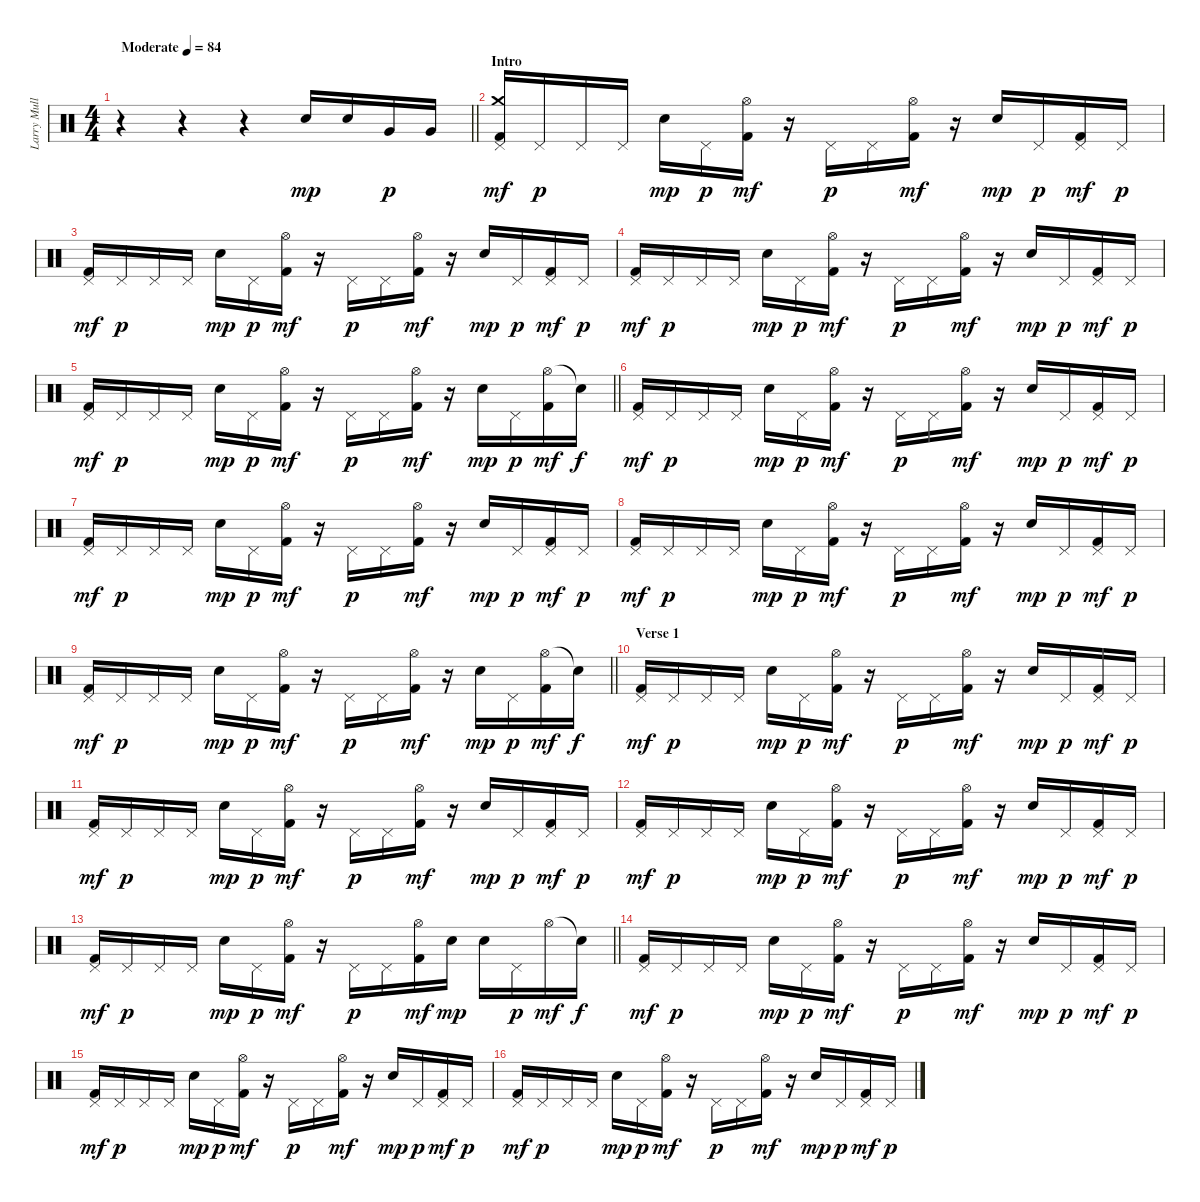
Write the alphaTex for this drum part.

\track ("Larry Mullen Jr." "Larry Mull") {instrument percussion}
\staff {score}
\articulation defaults
\ts (4 4)
\tempo (84 "Moderate")
\clef neutral
\barLineRight lightlight
\ks c
r.4{dy mp} r.4 r.4 "Electric Snare (hit)".16 "Electric Snare (hit)".16 "Very Low Tom (hit)".16{dy p} "Very Low Tom (hit)".16 |
\section ("" "Intro")
("Pedal Hi-Hat (hit)" "Crash medium (hit)" "Kick (hit) 2").16{dy mf} "Pedal Hi-Hat (hit)".16{dy p} "Pedal Hi-Hat (hit)".16 "Pedal Hi-Hat (hit)".16 "Electric Snare (hit)".16{dy mp} "Pedal Hi-Hat (hit)".16{dy p} ("Hi-Hat (open)" "Kick (hit) 2").16{dy mf} r.16 "Pedal Hi-Hat (hit)".16{dy p} "Pedal Hi-Hat (hit)".16 ("Hi-Hat (open)" "Kick (hit) 2").16{dy mf} r.16 "Electric Snare (hit)".16{dy mp} "Pedal Hi-Hat (hit)".16{dy p} ("Pedal Hi-Hat (hit)" "Kick (hit) 2").16{dy mf} "Pedal Hi-Hat (hit)".16{dy p} |
("Pedal Hi-Hat (hit)" "Kick (hit) 2").16{dy mf} "Pedal Hi-Hat (hit)".16{dy p} "Pedal Hi-Hat (hit)".16 "Pedal Hi-Hat (hit)".16 "Electric Snare (hit)".16{dy mp} "Pedal Hi-Hat (hit)".16{dy p} ("Hi-Hat (open)" "Kick (hit) 2").16{dy mf} r.16 "Pedal Hi-Hat (hit)".16{dy p} "Pedal Hi-Hat (hit)".16 ("Hi-Hat (open)" "Kick (hit) 2").16{dy mf} r.16 "Electric Snare (hit)".16{dy mp} "Pedal Hi-Hat (hit)".16{dy p} ("Pedal Hi-Hat (hit)" "Kick (hit) 2").16{dy mf} "Pedal Hi-Hat (hit)".16{dy p} |
("Pedal Hi-Hat (hit)" "Kick (hit) 2").16{dy mf} "Pedal Hi-Hat (hit)".16{dy p} "Pedal Hi-Hat (hit)".16 "Pedal Hi-Hat (hit)".16 "Electric Snare (hit)".16{dy mp} "Pedal Hi-Hat (hit)".16{dy p} ("Hi-Hat (open)" "Kick (hit) 2").16{dy mf} r.16 "Pedal Hi-Hat (hit)".16{dy p} "Pedal Hi-Hat (hit)".16 ("Hi-Hat (open)" "Kick (hit) 2").16{dy mf} r.16 "Electric Snare (hit)".16{dy mp} "Pedal Hi-Hat (hit)".16{dy p} ("Pedal Hi-Hat (hit)" "Kick (hit) 2").16{dy mf} "Pedal Hi-Hat (hit)".16{dy p} |
\barLineRight lightlight
("Pedal Hi-Hat (hit)" "Kick (hit) 2").16{dy mf} "Pedal Hi-Hat (hit)".16{dy p} "Pedal Hi-Hat (hit)".16 "Pedal Hi-Hat (hit)".16 "Electric Snare (hit)".16{dy mp} "Pedal Hi-Hat (hit)".16{dy p} ("Hi-Hat (open)" "Kick (hit) 2").16{dy mf} r.16 "Pedal Hi-Hat (hit)".16{dy p} "Pedal Hi-Hat (hit)".16 ("Hi-Hat (open)" "Kick (hit) 2").16{dy mf} r.16 "Electric Snare (hit)".16{dy mp} "Pedal Hi-Hat (hit)".16{dy p} ("Hi-Hat (open)" "Kick (hit) 2").16{dy mf} "Snare (hit)"{t}.16{dy f} |
("Pedal Hi-Hat (hit)" "Kick (hit) 2").16{dy mf} "Pedal Hi-Hat (hit)".16{dy p} "Pedal Hi-Hat (hit)".16 "Pedal Hi-Hat (hit)".16 "Electric Snare (hit)".16{dy mp} "Pedal Hi-Hat (hit)".16{dy p} ("Hi-Hat (open)" "Kick (hit) 2").16{dy mf} r.16 "Pedal Hi-Hat (hit)".16{dy p} "Pedal Hi-Hat (hit)".16 ("Hi-Hat (open)" "Kick (hit) 2").16{dy mf} r.16 "Electric Snare (hit)".16{dy mp} "Pedal Hi-Hat (hit)".16{dy p} ("Pedal Hi-Hat (hit)" "Kick (hit) 2").16{dy mf} "Pedal Hi-Hat (hit)".16{dy p} |
("Pedal Hi-Hat (hit)" "Kick (hit) 2").16{dy mf} "Pedal Hi-Hat (hit)".16{dy p} "Pedal Hi-Hat (hit)".16 "Pedal Hi-Hat (hit)".16 "Electric Snare (hit)".16{dy mp} "Pedal Hi-Hat (hit)".16{dy p} ("Hi-Hat (open)" "Kick (hit) 2").16{dy mf} r.16 "Pedal Hi-Hat (hit)".16{dy p} "Pedal Hi-Hat (hit)".16 ("Hi-Hat (open)" "Kick (hit) 2").16{dy mf} r.16 "Electric Snare (hit)".16{dy mp} "Pedal Hi-Hat (hit)".16{dy p} ("Pedal Hi-Hat (hit)" "Kick (hit) 2").16{dy mf} "Pedal Hi-Hat (hit)".16{dy p} |
("Pedal Hi-Hat (hit)" "Kick (hit) 2").16{dy mf} "Pedal Hi-Hat (hit)".16{dy p} "Pedal Hi-Hat (hit)".16 "Pedal Hi-Hat (hit)".16 "Electric Snare (hit)".16{dy mp} "Pedal Hi-Hat (hit)".16{dy p} ("Hi-Hat (open)" "Kick (hit) 2").16{dy mf} r.16 "Pedal Hi-Hat (hit)".16{dy p} "Pedal Hi-Hat (hit)".16 ("Hi-Hat (open)" "Kick (hit) 2").16{dy mf} r.16 "Electric Snare (hit)".16{dy mp} "Pedal Hi-Hat (hit)".16{dy p} ("Pedal Hi-Hat (hit)" "Kick (hit) 2").16{dy mf} "Pedal Hi-Hat (hit)".16{dy p} |
\barLineRight lightlight
("Pedal Hi-Hat (hit)" "Kick (hit) 2").16{dy mf} "Pedal Hi-Hat (hit)".16{dy p} "Pedal Hi-Hat (hit)".16 "Pedal Hi-Hat (hit)".16 "Electric Snare (hit)".16{dy mp} "Pedal Hi-Hat (hit)".16{dy p} ("Hi-Hat (open)" "Kick (hit) 2").16{dy mf} r.16 "Pedal Hi-Hat (hit)".16{dy p} "Pedal Hi-Hat (hit)".16 ("Hi-Hat (open)" "Kick (hit) 2").16{dy mf} r.16 "Electric Snare (hit)".16{dy mp} "Pedal Hi-Hat (hit)".16{dy p} ("Hi-Hat (open)" "Kick (hit) 2").16{dy mf} "Snare (hit)"{t}.16{dy f} |
\section ("" "Verse 1")
("Pedal Hi-Hat (hit)" "Kick (hit) 2").16{dy mf} "Pedal Hi-Hat (hit)".16{dy p} "Pedal Hi-Hat (hit)".16 "Pedal Hi-Hat (hit)".16 "Electric Snare (hit)".16{dy mp} "Pedal Hi-Hat (hit)".16{dy p} ("Hi-Hat (open)" "Kick (hit) 2").16{dy mf} r.16 "Pedal Hi-Hat (hit)".16{dy p} "Pedal Hi-Hat (hit)".16 ("Hi-Hat (open)" "Kick (hit) 2").16{dy mf} r.16 "Electric Snare (hit)".16{dy mp} "Pedal Hi-Hat (hit)".16{dy p} ("Pedal Hi-Hat (hit)" "Kick (hit) 2").16{dy mf} "Pedal Hi-Hat (hit)".16{dy p} |
("Pedal Hi-Hat (hit)" "Kick (hit) 2").16{dy mf} "Pedal Hi-Hat (hit)".16{dy p} "Pedal Hi-Hat (hit)".16 "Pedal Hi-Hat (hit)".16 "Electric Snare (hit)".16{dy mp} "Pedal Hi-Hat (hit)".16{dy p} ("Hi-Hat (open)" "Kick (hit) 2").16{dy mf} r.16 "Pedal Hi-Hat (hit)".16{dy p} "Pedal Hi-Hat (hit)".16 ("Hi-Hat (open)" "Kick (hit) 2").16{dy mf} r.16 "Electric Snare (hit)".16{dy mp} "Pedal Hi-Hat (hit)".16{dy p} ("Pedal Hi-Hat (hit)" "Kick (hit) 2").16{dy mf} "Pedal Hi-Hat (hit)".16{dy p} |
("Pedal Hi-Hat (hit)" "Kick (hit) 2").16{dy mf} "Pedal Hi-Hat (hit)".16{dy p} "Pedal Hi-Hat (hit)".16 "Pedal Hi-Hat (hit)".16 "Electric Snare (hit)".16{dy mp} "Pedal Hi-Hat (hit)".16{dy p} ("Hi-Hat (open)" "Kick (hit) 2").16{dy mf} r.16 "Pedal Hi-Hat (hit)".16{dy p} "Pedal Hi-Hat (hit)".16 ("Hi-Hat (open)" "Kick (hit) 2").16{dy mf} r.16 "Electric Snare (hit)".16{dy mp} "Pedal Hi-Hat (hit)".16{dy p} ("Pedal Hi-Hat (hit)" "Kick (hit) 2").16{dy mf} "Pedal Hi-Hat (hit)".16{dy p} |
\barLineRight lightlight
("Pedal Hi-Hat (hit)" "Kick (hit) 2").16{dy mf} "Pedal Hi-Hat (hit)".16{dy p} "Pedal Hi-Hat (hit)".16 "Pedal Hi-Hat (hit)".16 "Electric Snare (hit)".16{dy mp} "Pedal Hi-Hat (hit)".16{dy p} ("Hi-Hat (open)" "Kick (hit) 2").16{dy mf} r.16 "Pedal Hi-Hat (hit)".16{dy p} "Pedal Hi-Hat (hit)".16 ("Hi-Hat (open)" "Kick (hit) 2").16{dy mf} "Electric Snare (hit)".16{dy mp} "Electric Snare (hit)".16 "Pedal Hi-Hat (hit)".16{dy p} "Hi-Hat (open)".16{dy mf} "Snare (hit)"{t}.16{dy f} |
("Pedal Hi-Hat (hit)" "Kick (hit) 2").16{dy mf} "Pedal Hi-Hat (hit)".16{dy p} "Pedal Hi-Hat (hit)".16 "Pedal Hi-Hat (hit)".16 "Electric Snare (hit)".16{dy mp} "Pedal Hi-Hat (hit)".16{dy p} ("Hi-Hat (open)" "Kick (hit) 2").16{dy mf} r.16 "Pedal Hi-Hat (hit)".16{dy p} "Pedal Hi-Hat (hit)".16 ("Hi-Hat (open)" "Kick (hit) 2").16{dy mf} r.16 "Electric Snare (hit)".16{dy mp} "Pedal Hi-Hat (hit)".16{dy p} ("Pedal Hi-Hat (hit)" "Kick (hit) 2").16{dy mf} "Pedal Hi-Hat (hit)".16{dy p} |
("Pedal Hi-Hat (hit)" "Kick (hit) 2").16{dy mf} "Pedal Hi-Hat (hit)".16{dy p} "Pedal Hi-Hat (hit)".16 "Pedal Hi-Hat (hit)".16 "Electric Snare (hit)".16{dy mp} "Pedal Hi-Hat (hit)".16{dy p} ("Hi-Hat (open)" "Kick (hit) 2").16{dy mf} r.16 "Pedal Hi-Hat (hit)".16{dy p} "Pedal Hi-Hat (hit)".16 ("Hi-Hat (open)" "Kick (hit) 2").16{dy mf} r.16 "Electric Snare (hit)".16{dy mp} "Pedal Hi-Hat (hit)".16{dy p} ("Pedal Hi-Hat (hit)" "Kick (hit) 2").16{dy mf} "Pedal Hi-Hat (hit)".16{dy p} |
("Pedal Hi-Hat (hit)" "Kick (hit) 2").16{dy mf} "Pedal Hi-Hat (hit)".16{dy p} "Pedal Hi-Hat (hit)".16 "Pedal Hi-Hat (hit)".16 "Electric Snare (hit)".16{dy mp} "Pedal Hi-Hat (hit)".16{dy p} ("Hi-Hat (open)" "Kick (hit) 2").16{dy mf} r.16 "Pedal Hi-Hat (hit)".16{dy p} "Pedal Hi-Hat (hit)".16 ("Hi-Hat (open)" "Kick (hit) 2").16{dy mf} r.16 "Electric Snare (hit)".16{dy mp} "Pedal Hi-Hat (hit)".16{dy p} ("Pedal Hi-Hat (hit)" "Kick (hit) 2").16{dy mf} "Pedal Hi-Hat (hit)".16{dy p}
